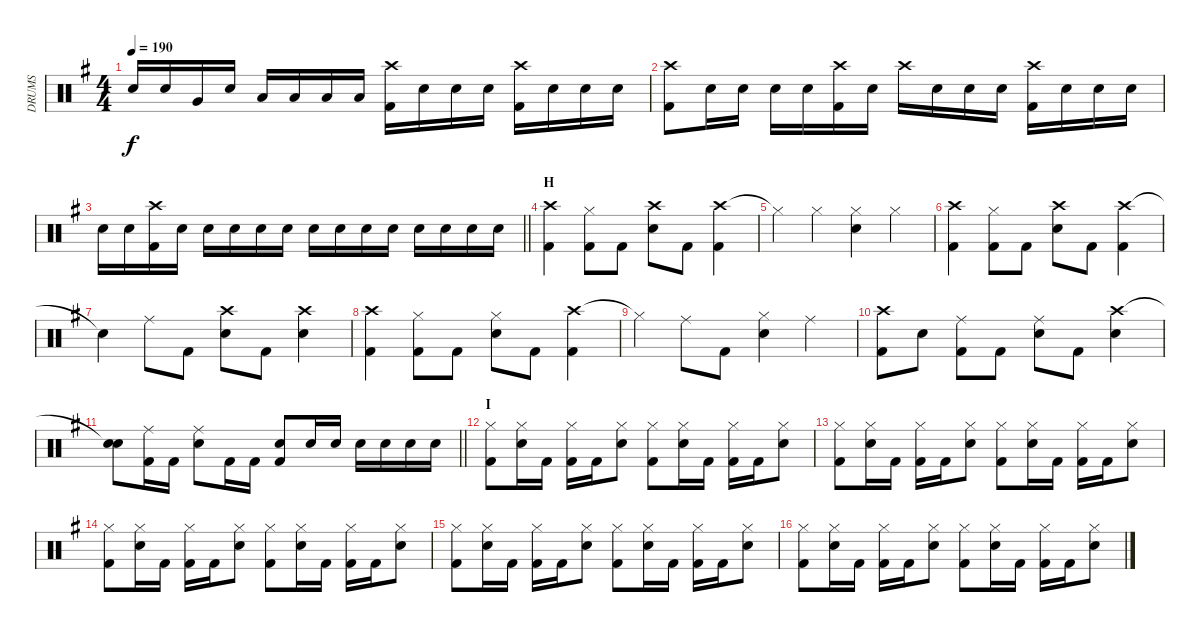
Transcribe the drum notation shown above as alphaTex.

\track ("DRUMS" "DRUMS") {instrument percussion}
\staff {score}
\articulation defaults
\ts (4 4)
\tempo 190
\clef neutral
\ks g "Snare (hit) 2".16{dy f} "Snare (hit) 2".16 "Very Low Tom (hit)".16 "Snare (hit) 2".16 "Low Floor Tom (hit)".16 "Low Floor Tom (hit)".16 "Low Floor Tom (hit)".16 "Low Floor Tom (hit)".16
("Crash high (hit)" "Kick (hit) 2").16 "Snare (hit) 2".16 "Snare (hit) 2".16 "Snare (hit) 2".16 ("Crash high (hit)" "Kick (hit) 2").16 "Snare (hit) 2".16 "Snare (hit) 2".16 "Snare (hit) 2".16 |
("Crash high (hit)" "Kick (hit) 2").8 "Snare (hit) 2".16 "Snare (hit) 2".16 "Snare (hit) 2".16 "Snare (hit) 2".16 ("Crash high (hit)" "Kick (hit) 2").16 "Snare (hit) 2".16 "Crash high (hit)".16 "Snare (hit) 2".16 "Snare (hit) 2".16 "Snare (hit) 2".16 ("Crash high (hit)" "Kick (hit) 2").16 "Snare (hit) 2".16 "Snare (hit) 2".16 "Snare (hit) 2".16 |
\barLineRight lightlight "Snare (hit) 2".16 "Snare (hit) 2".16
("Crash high (hit)" "Kick (hit) 2").16 "Snare (hit) 2".16 "Snare (hit) 2".16 "Snare (hit) 2".16 "Snare (hit) 2".16 "Snare (hit) 2".16 "Snare (hit) 2".16 "Snare (hit) 2".16 "Snare (hit) 2".16 "Snare (hit) 2".16 "Snare (hit) 2".16 "Snare (hit) 2".16 "Snare (hit) 2".16 "Snare (hit) 2".16 |
\section ("" "H")
("Crash high (hit)" "Kick (hit) 2").4 ("Hi-Hat (closed)" "Kick (hit) 2").8 "Kick (hit) 2".8 ("Crash high (hit)" "Snare (hit) 2").8 "Kick (hit) 2".8 ("Crash high (hit)" "Kick (hit) 2").4 |
"Hi-Hat (closed)"{t}.4 "Hi-Hat (closed)".4 ("Snare (hit) 2" "Hi-Hat (closed)").4 "Hi-Hat (closed)".4 |
("Crash high (hit)" "Kick (hit) 2").4 ("Hi-Hat (closed)" "Kick (hit) 2").8 "Kick (hit) 2".8 ("Crash high (hit)" "Snare (hit) 2").8 "Kick (hit) 2".8 ("Crash high (hit)" "Kick (hit) 2").4 |
"Snare (hit)"{t}.4 "Ride (middle)".8 "Kick (hit) 2".8 ("Crash high (hit)" "Snare (hit) 2").8 "Kick (hit) 2".8 ("Crash high (hit)" "Snare (hit) 2").4 |
("Crash high (hit)" "Kick (hit) 2").4 ("Hi-Hat (closed)" "Kick (hit) 2").8 "Kick (hit) 2".8 ("Hi-Hat (closed)" "Snare (hit) 2").8 "Kick (hit) 2".8 ("Crash high (hit)" "Kick (hit) 2").4 |
"Hi-Hat (closed)"{t}.4 "Ride (middle)".8 "Kick (hit) 2".8 ("Snare (hit) 2" "Hi-Hat (closed)").4 "Ride (middle)".4 |
("Crash high (hit)" "Kick (hit) 2").8 "Snare (hit) 2".8 ("Ride (middle)" "Kick (hit) 2").8 "Kick (hit) 2".8 ("Ride (middle)" "Snare (hit) 2").8 "Kick (hit) 2".8 ("Crash high (hit)" "Snare (hit) 2").4 |
\barLineRight lightlight
("Snare (hit)"{t} "Snare (hit) 2").8 ("Ride (middle)" "Kick (hit) 2").16 "Kick (hit) 2".16 ("Ride (middle)" "Snare (hit) 2").8 "Kick (hit) 2".16 "Kick (hit) 2".16 ("Snare (hit) 2" "Kick (hit) 2").8 "Snare (hit) 2".16 "Snare (hit) 2".16 "Snare (hit) 2".16 "Snare (hit) 2".16 "Snare (hit) 2".16 "Snare (hit) 2".16 |
\section ("" "I")
("Hi-Hat (closed)" "Kick (hit) 2").8 ("Hi-Hat (closed)" "Snare (hit) 2").16 "Kick (hit) 2".16 ("Hi-Hat (closed)" "Kick (hit) 2").16 "Kick (hit) 2".16 ("Hi-Hat (closed)" "Snare (hit) 2").8 ("Hi-Hat (closed)" "Kick (hit) 2").8 ("Hi-Hat (closed)" "Snare (hit) 2").16 "Kick (hit) 2".16 ("Hi-Hat (closed)" "Kick (hit) 2").16 "Kick (hit) 2".16 ("Hi-Hat (closed)" "Snare (hit) 2").8 |
("Hi-Hat (closed)" "Kick (hit) 2").8 ("Hi-Hat (closed)" "Snare (hit) 2").16 "Kick (hit) 2".16 ("Hi-Hat (closed)" "Kick (hit) 2").16 "Kick (hit) 2".16 ("Hi-Hat (closed)" "Snare (hit) 2").8 ("Hi-Hat (closed)" "Kick (hit) 2").8 ("Hi-Hat (closed)" "Snare (hit) 2").16 "Kick (hit) 2".16 ("Hi-Hat (closed)" "Kick (hit) 2").16 "Kick (hit) 2".16 ("Hi-Hat (closed)" "Snare (hit) 2").8 |
("Hi-Hat (closed)" "Kick (hit) 2").8 ("Hi-Hat (closed)" "Snare (hit) 2").16 "Kick (hit) 2".16 ("Hi-Hat (closed)" "Kick (hit) 2").16 "Kick (hit) 2".16 ("Hi-Hat (closed)" "Snare (hit) 2").8 ("Hi-Hat (closed)" "Kick (hit) 2").8 ("Hi-Hat (closed)" "Snare (hit) 2").16 "Kick (hit) 2".16 ("Hi-Hat (closed)" "Kick (hit) 2").16 "Kick (hit) 2".16 ("Hi-Hat (closed)" "Snare (hit) 2").8 |
("Hi-Hat (closed)" "Kick (hit) 2").8 ("Hi-Hat (closed)" "Snare (hit) 2").16 "Kick (hit) 2".16 ("Hi-Hat (closed)" "Kick (hit) 2").16 "Kick (hit) 2".16 ("Hi-Hat (closed)" "Snare (hit) 2").8 ("Hi-Hat (closed)" "Kick (hit) 2").8 ("Hi-Hat (closed)" "Snare (hit) 2").16 "Kick (hit) 2".16 ("Hi-Hat (closed)" "Kick (hit) 2").16 "Kick (hit) 2".16 ("Hi-Hat (closed)" "Snare (hit) 2").8 |
("Hi-Hat (closed)" "Kick (hit) 2").8 ("Hi-Hat (closed)" "Snare (hit) 2").16 "Kick (hit) 2".16 ("Hi-Hat (closed)" "Kick (hit) 2").16 "Kick (hit) 2".16 ("Hi-Hat (closed)" "Snare (hit) 2").8 ("Hi-Hat (closed)" "Kick (hit) 2").8 ("Hi-Hat (closed)" "Snare (hit) 2").16 "Kick (hit) 2".16 ("Hi-Hat (closed)" "Kick (hit) 2").16 "Kick (hit) 2".16 ("Hi-Hat (closed)" "Snare (hit) 2").8
